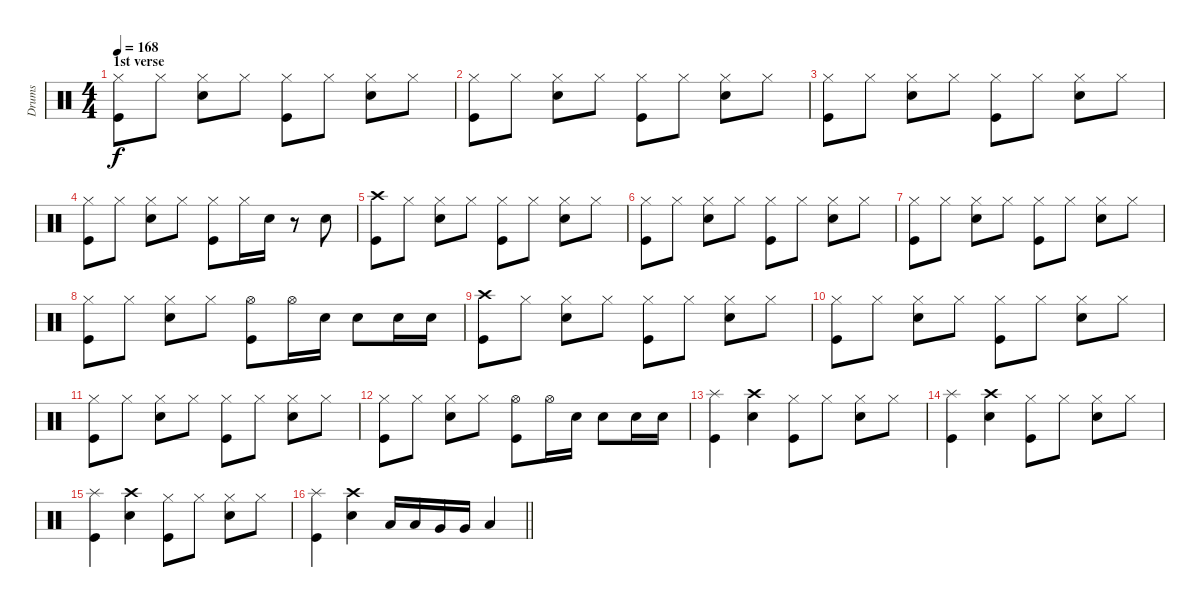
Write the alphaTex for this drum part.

\track ("Drums" "Drums") {instrument percussion}
\staff {score}
\articulation defaults
\ts (4 4)
\section ("" "1st verse")
\tempo 168
\clef neutral
\ks c
("Hi-Hat (closed)" "Kick (hit)").8{dy f} "Hi-Hat (closed)".8 ("Hi-Hat (closed)" "Snare (hit) 2").8 "Hi-Hat (closed)".8 ("Hi-Hat (closed)" "Kick (hit)").8 "Hi-Hat (closed)".8 ("Hi-Hat (closed)" "Snare (hit) 2").8 "Hi-Hat (closed)".8 |
("Hi-Hat (closed)" "Kick (hit)").8 "Hi-Hat (closed)".8 ("Hi-Hat (closed)" "Snare (hit) 2").8 "Hi-Hat (closed)".8 ("Hi-Hat (closed)" "Kick (hit)").8 "Hi-Hat (closed)".8 ("Hi-Hat (closed)" "Snare (hit) 2").8 "Hi-Hat (closed)".8 |
("Hi-Hat (closed)" "Kick (hit)").8 "Hi-Hat (closed)".8 ("Hi-Hat (closed)" "Snare (hit) 2").8 "Hi-Hat (closed)".8 ("Hi-Hat (closed)" "Kick (hit)").8 "Hi-Hat (closed)".8 ("Hi-Hat (closed)" "Snare (hit) 2").8 "Hi-Hat (closed)".8 |
("Hi-Hat (closed)" "Kick (hit)").8 "Hi-Hat (closed)".8 ("Hi-Hat (closed)" "Snare (hit) 2").8 "Hi-Hat (closed)".8 ("Hi-Hat (closed)" "Kick (hit)").8 "Hi-Hat (closed)".16 "Snare (hit) 2".16 r.8 "Snare (hit) 2".8 |
("Crash high (hit)" "Kick (hit)").8 "Hi-Hat (closed)".8 ("Hi-Hat (closed)" "Snare (hit) 2").8 "Hi-Hat (closed)".8 ("Hi-Hat (closed)" "Kick (hit)").8 "Hi-Hat (closed)".8 ("Hi-Hat (closed)" "Snare (hit) 2").8 "Hi-Hat (closed)".8 |
("Hi-Hat (closed)" "Kick (hit)").8 "Hi-Hat (closed)".8 ("Hi-Hat (closed)" "Snare (hit) 2").8 "Hi-Hat (closed)".8 ("Hi-Hat (closed)" "Kick (hit)").8 "Hi-Hat (closed)".8 ("Hi-Hat (closed)" "Snare (hit) 2").8 "Hi-Hat (closed)".8 |
("Hi-Hat (closed)" "Kick (hit)").8 "Hi-Hat (closed)".8 ("Hi-Hat (closed)" "Snare (hit) 2").8 "Hi-Hat (closed)".8 ("Hi-Hat (closed)" "Kick (hit)").8 "Hi-Hat (closed)".8 ("Hi-Hat (closed)" "Snare (hit) 2").8 "Hi-Hat (closed)".8 |
("Hi-Hat (closed)" "Kick (hit)").8 "Hi-Hat (closed)".8 ("Hi-Hat (closed)" "Snare (hit) 2").8 "Hi-Hat (closed)".8 ("Hi-Hat (open)" "Kick (hit)").8 "Hi-Hat (open)".16 "Snare (hit) 2".16 "Snare (hit) 2".8 "Snare (hit) 2".16 "Snare (hit) 2".16 |
("Crash high (hit)" "Kick (hit)").8 "Hi-Hat (closed)".8 ("Hi-Hat (closed)" "Snare (hit) 2").8 "Hi-Hat (closed)".8 ("Hi-Hat (closed)" "Kick (hit)").8 "Hi-Hat (closed)".8 ("Hi-Hat (closed)" "Snare (hit) 2").8 "Hi-Hat (closed)".8 |
("Hi-Hat (closed)" "Kick (hit)").8 "Hi-Hat (closed)".8 ("Hi-Hat (closed)" "Snare (hit) 2").8 "Hi-Hat (closed)".8 ("Hi-Hat (closed)" "Kick (hit)").8 "Hi-Hat (closed)".8 ("Hi-Hat (closed)" "Snare (hit) 2").8 "Hi-Hat (closed)".8 |
("Hi-Hat (closed)" "Kick (hit)").8 "Hi-Hat (closed)".8 ("Hi-Hat (closed)" "Snare (hit) 2").8 "Hi-Hat (closed)".8 ("Hi-Hat (closed)" "Kick (hit)").8 "Hi-Hat (closed)".8 ("Hi-Hat (closed)" "Snare (hit) 2").8 "Hi-Hat (closed)".8 |
("Hi-Hat (closed)" "Kick (hit)").8 "Hi-Hat (closed)".8 ("Hi-Hat (closed)" "Snare (hit) 2").8 "Hi-Hat (closed)".8 ("Hi-Hat (open)" "Kick (hit)").8 "Hi-Hat (open)".16 "Snare (hit) 2".16 "Snare (hit) 2".8 "Snare (hit) 2".16 "Snare (hit) 2".16 |
("Splash (hit)" "Kick (hit)").4 ("Crash high (hit)" "Snare (hit) 2").4 ("Hi-Hat (closed)" "Kick (hit)").8 "Hi-Hat (closed)".8 ("Hi-Hat (closed)" "Snare (hit) 2").8 "Hi-Hat (closed)".8 |
("Splash (hit)" "Kick (hit)").4 ("Crash high (hit)" "Snare (hit) 2").4 ("Hi-Hat (closed)" "Kick (hit)").8 "Hi-Hat (closed)".8 ("Hi-Hat (closed)" "Snare (hit) 2").8 "Hi-Hat (closed)".8 |
("Splash (hit)" "Kick (hit)").4 ("Crash high (hit)" "Snare (hit) 2").4 ("Hi-Hat (closed)" "Kick (hit)").8 "Hi-Hat (closed)".8 ("Hi-Hat (closed)" "Snare (hit) 2").8 "Hi-Hat (closed)".8 |
\barLineRight lightlight
("Splash (hit)" "Kick (hit)").4 ("Crash high (hit)" "Snare (hit) 2").4 "Low Tom (hit)".16 "Low Tom (hit)".16 "Very Low Tom (hit)".16 "Very Low Tom (hit)".16 "Low Floor Tom (hit)".4
